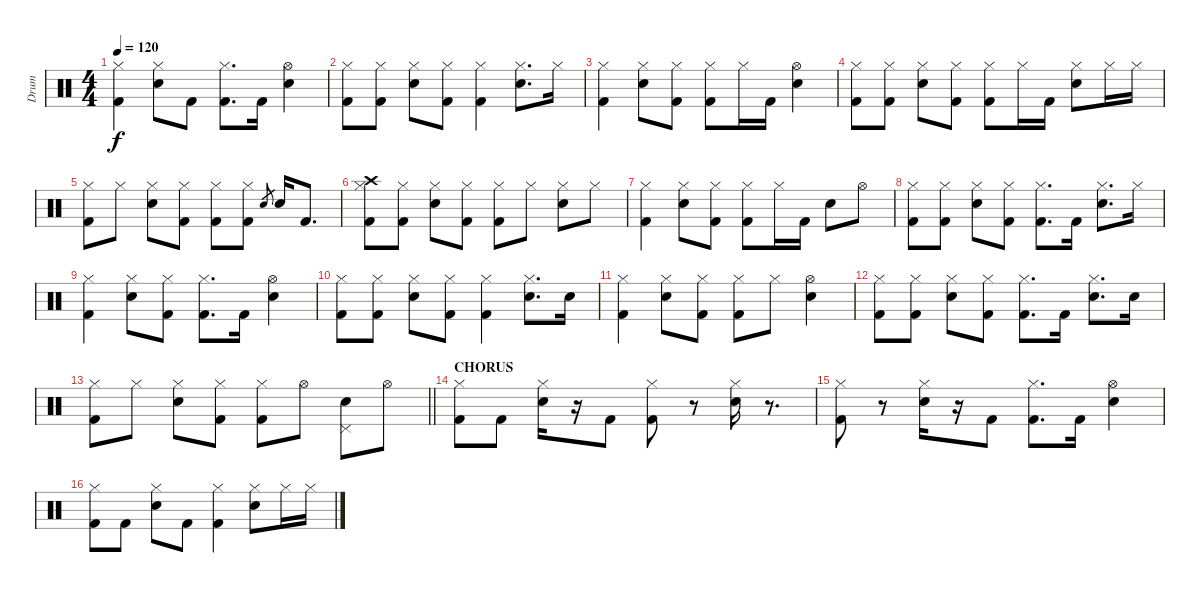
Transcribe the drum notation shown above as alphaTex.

\track ("Drum" "Drum") {instrument percussion}
\staff {score}
\articulation defaults
\ts (4 4)
\tempo 120
\clef neutral
\ks c
("Kick (hit) 2" "Hi-Hat (closed)").4{dy f} ("Snare (hit) 2" "Hi-Hat (closed)").8 "Kick (hit) 2".8 ("Kick (hit) 2" "Hi-Hat (closed)").8{d} "Kick (hit) 2".16 ("Snare (hit) 2" "Hi-Hat (open)").4 |
("Kick (hit) 2" "Hi-Hat (closed)").8 ("Kick (hit) 2" "Hi-Hat (closed)").8 ("Snare (hit) 2" "Hi-Hat (closed)").8 ("Kick (hit) 2" "Hi-Hat (closed)").8 ("Kick (hit) 2" "Hi-Hat (closed)").4 ("Snare (hit) 2" "Hi-Hat (closed)").8{d} "Hi-Hat (closed)".16 |
("Kick (hit) 2" "Hi-Hat (closed)").4 ("Snare (hit) 2" "Hi-Hat (closed)").8 ("Kick (hit) 2" "Hi-Hat (closed)").8 ("Kick (hit) 2" "Hi-Hat (closed)").8 "Hi-Hat (closed)".16 "Kick (hit) 2".16 ("Snare (hit) 2" "Hi-Hat (open)").4 |
("Kick (hit) 2" "Hi-Hat (closed)").8 ("Kick (hit) 2" "Hi-Hat (closed)").8 ("Snare (hit) 2" "Hi-Hat (closed)").8 ("Kick (hit) 2" "Hi-Hat (closed)").8 ("Kick (hit) 2" "Hi-Hat (closed)").8 "Hi-Hat (closed)".16 "Kick (hit) 2".16 ("Snare (hit) 2" "Hi-Hat (closed)").8 "Hi-Hat (closed)".16 "Hi-Hat (closed)".16 |
("Kick (hit) 2" "Hi-Hat (closed)").8 "Hi-Hat (closed)".8 ("Snare (hit) 2" "Hi-Hat (closed)").8 ("Kick (hit) 2" "Hi-Hat (closed)").8 ("Kick (hit) 2" "Hi-Hat (closed)").8 ("Kick (hit) 2" "Hi-Hat (closed)").8 "Electric Snare (hit)".8{gr} "Electric Snare (hit)".16 "Kick (hit) 2".8{d} |
("Kick (hit) 2" "Hi-Hat (closed)" "Crash high (hit)").8 ("Kick (hit) 2" "Hi-Hat (closed)").8 ("Snare (hit) 2" "Hi-Hat (closed)").8 ("Kick (hit) 2" "Hi-Hat (closed)").8 ("Kick (hit) 2" "Hi-Hat (closed)").8 "Hi-Hat (closed)".8 ("Snare (hit) 2" "Hi-Hat (closed)").8 "Hi-Hat (closed)".8 |
("Kick (hit) 2" "Hi-Hat (closed)").4 ("Snare (hit) 2" "Hi-Hat (closed)").8 ("Kick (hit) 2" "Hi-Hat (closed)").8 ("Kick (hit) 2" "Hi-Hat (closed)").8 "Hi-Hat (closed)".16 "Kick (hit) 2".16 "Snare (hit) 2".8 "Hi-Hat (open)".8 |
("Kick (hit) 2" "Hi-Hat (closed)").8 ("Kick (hit) 2" "Hi-Hat (closed)").8 ("Snare (hit) 2" "Hi-Hat (closed)").8 ("Kick (hit) 2" "Hi-Hat (closed)").8 ("Kick (hit) 2" "Hi-Hat (closed)").8{d} "Kick (hit) 2".16 ("Snare (hit) 2" "Hi-Hat (closed)").8{d} "Hi-Hat (closed)".16 |
("Kick (hit) 2" "Hi-Hat (closed)").4 ("Snare (hit) 2" "Hi-Hat (closed)").8 ("Kick (hit) 2" "Hi-Hat (closed)").8 ("Kick (hit) 2" "Hi-Hat (closed)").8{d} "Kick (hit) 2".16 ("Snare (hit) 2" "Hi-Hat (open)").4 |
("Kick (hit) 2" "Hi-Hat (closed)").8 ("Kick (hit) 2" "Hi-Hat (closed)").8 ("Snare (hit) 2" "Hi-Hat (closed)").8 ("Kick (hit) 2" "Hi-Hat (closed)").8 ("Kick (hit) 2" "Hi-Hat (closed)").4 ("Snare (hit) 2" "Hi-Hat (closed)").8{d} "Snare (hit) 2".16 |
("Kick (hit) 2" "Hi-Hat (closed)").4 ("Snare (hit) 2" "Hi-Hat (closed)").8 ("Kick (hit) 2" "Hi-Hat (closed)").8 ("Kick (hit) 2" "Hi-Hat (closed)").8 "Hi-Hat (closed)".8 ("Snare (hit) 2" "Hi-Hat (open)").4 |
("Kick (hit) 2" "Hi-Hat (closed)").8 ("Kick (hit) 2" "Hi-Hat (closed)").8 ("Snare (hit) 2" "Hi-Hat (closed)").8 ("Kick (hit) 2" "Hi-Hat (closed)").8 ("Kick (hit) 2" "Hi-Hat (closed)").8{d} "Kick (hit) 2".16 ("Snare (hit) 2" "Hi-Hat (closed)").8{d} "Snare (hit) 2".16 |
\barLineRight lightlight
("Kick (hit) 2" "Hi-Hat (closed)").8 "Hi-Hat (closed)".8 ("Snare (hit) 2" "Hi-Hat (closed)").8 ("Kick (hit) 2" "Hi-Hat (closed)").8 ("Kick (hit) 2" "Hi-Hat (closed)").8 "Hi-Hat (open)".8 ("Snare (hit) 2" "Pedal Hi-Hat (hit)").8 "Hi-Hat (open)".8 |
\section ("" "CHORUS")
("Kick (hit) 2" "Hi-Hat (closed)").8 "Kick (hit) 2".8 ("Snare (hit) 2" "Hi-Hat (closed)").16 r.16 "Kick (hit) 2".8 ("Kick (hit) 2" "Hi-Hat (closed)").8 r.8 ("Snare (hit) 2" "Hi-Hat (closed)").16 r.8{d} |
("Kick (hit) 2" "Hi-Hat (closed)").8 r.8 ("Snare (hit) 2" "Hi-Hat (closed)").16 r.16 "Kick (hit) 2".8 ("Kick (hit) 2" "Hi-Hat (closed)").8{d} "Kick (hit) 2".16 ("Snare (hit) 2" "Hi-Hat (open)").4 |
("Kick (hit) 2" "Hi-Hat (closed)").8 "Kick (hit) 2".8 ("Snare (hit) 2" "Hi-Hat (closed)").8 "Kick (hit) 2".8 ("Kick (hit) 2" "Hi-Hat (closed)").4 ("Snare (hit) 2" "Hi-Hat (closed)").8 "Hi-Hat (closed)".16 "Hi-Hat (closed)".16
